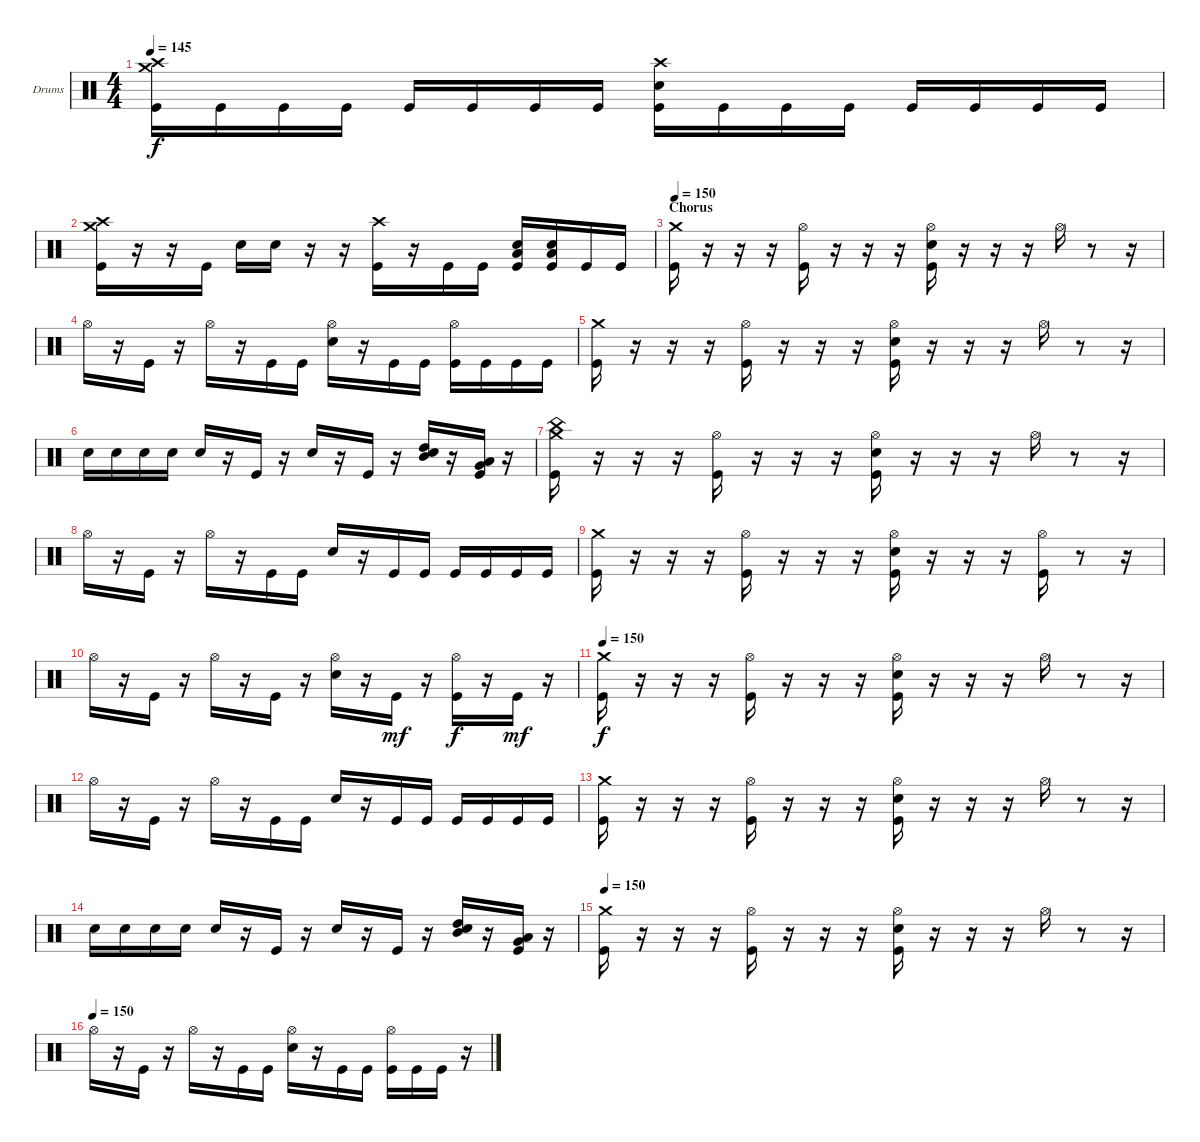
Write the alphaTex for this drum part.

\bracketExtendMode groupsimilarinstruments
\firstSystemTrackNameOrientation horizontal
\otherSystemsTrackNameOrientation horizontal
\track ("Cory La Quay" "Drums") {instrument percussion}
\staff {score}
\articulation defaults
\ts (4 4)
\tempo 145
\clef neutral
\ks c
("Crash high (hit)" "Crash medium (hit)" "Kick (hit)").16{dy f} "Kick (hit)".16 "Kick (hit)".16 "Kick (hit)".16 "Kick (hit)".16 "Kick (hit)".16 "Kick (hit)".16 "Kick (hit)".16 ("Crash high (hit)" "Snare (hit) 2" "Kick (hit)").16 "Kick (hit)".16 "Kick (hit)".16 "Kick (hit)".16 "Kick (hit)".16 "Kick (hit)".16 "Kick (hit)".16 "Kick (hit)".16 |
("Crash high (hit)" "Crash medium (hit)" "Kick (hit)").16 r.16 r.16 "Kick (hit)".16 "Snare (hit) 2".16 "Snare (hit) 2".16 r.16 r.16 ("Crash high (hit)" "Kick (hit)").16 r.16 "Kick (hit)".16 "Kick (hit)".16 ("Snare (hit) 2" "Kick (hit)" "Low Tom (hit)").16 ("Kick (hit)" "Snare (hit) 2" "Low Tom (hit)").16 "Kick (hit)".16 "Kick (hit)".16 |
\section ("" "Chorus")
\tempo 150
("Crash medium (hit)" "Kick (hit)").16 r.16 r.16 r.16 ("Hi-Hat (open)" "Kick (hit)").16 r.16 r.16 r.16 ("Hi-Hat (open)" "Snare (hit) 2" "Kick (hit)").16 r.16 r.16 r.16 "Hi-Hat (open)".16 r.8 r.16 |
"Hi-Hat (open)".16 r.16 "Kick (hit)".16 r.16 "Hi-Hat (open)".16 r.16 "Kick (hit)".16 "Kick (hit)".16 ("Hi-Hat (open)" "Snare (hit) 2").16 r.16 "Kick (hit)".16 "Kick (hit)".16 ("Hi-Hat (open)" "Kick (hit)").16 "Kick (hit)".16 "Kick (hit)".16 "Kick (hit)".16 |
("Crash medium (hit)" "Kick (hit)").16 r.16 r.16 r.16 ("Hi-Hat (open)" "Kick (hit)").16 r.16 r.16 r.16 ("Hi-Hat (open)" "Snare (hit) 2" "Kick (hit)").16 r.16 r.16 r.16 "Hi-Hat (open)".16 r.8 r.16 |
"Snare (hit) 2".16 "Snare (hit) 2".16 "Snare (hit) 2".16 "Snare (hit) 2".16 "Snare (hit) 2".16 r.16 "Kick (hit)".16 r.16 "Snare (hit) 2".16 r.16 "Kick (hit)".16 r.16 ("Snare (hit) 2" "High Tom (hit)" "Mid Tom (hit)").16 r.16 ("Kick (hit)" "Low Tom (hit)" "Very Low Tom (hit)").16 r.16 |
("Crash medium (hit)" "Kick (hit)" "China (hit)").16 r.16 r.16 r.16 ("Hi-Hat (open)" "Kick (hit)").16 r.16 r.16 r.16 ("Hi-Hat (open)" "Snare (hit) 2" "Kick (hit)").16 r.16 r.16 r.16 "Hi-Hat (open)".16 r.8 r.16 |
"Hi-Hat (open)".16 r.16 "Kick (hit)".16 r.16 "Hi-Hat (open)".16 r.16 "Kick (hit)".16 "Kick (hit)".16 "Snare (hit) 2".16 r.16 "Kick (hit)".16 "Kick (hit)".16 "Kick (hit)".16 "Kick (hit)".16 "Kick (hit)".16 "Kick (hit)".16 |
("Crash medium (hit)" "Kick (hit)").16 r.16 r.16 r.16 ("Hi-Hat (open)" "Kick (hit)").16 r.16 r.16 r.16 ("Hi-Hat (open)" "Snare (hit) 2" "Kick (hit)").16 r.16 r.16 r.16 ("Hi-Hat (open)" "Kick (hit)").16 r.8 r.16 |
"Hi-Hat (open)".16 r.16 "Kick (hit)".16 r.16 "Hi-Hat (open)".16 r.16 "Kick (hit)".16 r.16 ("Hi-Hat (open)" "Snare (hit) 2").16 r.16 "Kick (hit)".16{dy mf} r.16 ("Hi-Hat (open)" "Kick (hit)").16{dy f} r.16 "Kick (hit)".16{dy mf} r.16 |
\tempo 150
("Crash medium (hit)" "Kick (hit)").16{dy f} r.16 r.16 r.16 ("Hi-Hat (open)" "Kick (hit)").16 r.16 r.16 r.16 ("Hi-Hat (open)" "Snare (hit) 2" "Kick (hit)").16 r.16 r.16 r.16 "Hi-Hat (open)".16 r.8 r.16 |
"Hi-Hat (open)".16 r.16 "Kick (hit)".16 r.16 "Hi-Hat (open)".16 r.16 "Kick (hit)".16 "Kick (hit)".16 "Snare (hit) 2".16 r.16 "Kick (hit)".16 "Kick (hit)".16 "Kick (hit)".16 "Kick (hit)".16 "Kick (hit)".16 "Kick (hit)".16 |
("Crash medium (hit)" "Kick (hit)").16 r.16 r.16 r.16 ("Hi-Hat (open)" "Kick (hit)").16 r.16 r.16 r.16 ("Hi-Hat (open)" "Snare (hit) 2" "Kick (hit)").16 r.16 r.16 r.16 "Hi-Hat (open)".16 r.8 r.16 |
"Snare (hit) 2".16 "Snare (hit) 2".16 "Snare (hit) 2".16 "Snare (hit) 2".16 "Snare (hit) 2".16 r.16 "Kick (hit)".16 r.16 "Snare (hit) 2".16 r.16 "Kick (hit)".16 r.16 ("Snare (hit) 2" "High Tom (hit)" "Mid Tom (hit)").16 r.16 ("Kick (hit)" "Low Tom (hit)" "Very Low Tom (hit)").16 r.16 |
\tempo 150
("Crash medium (hit)" "Kick (hit)").16 r.16 r.16 r.16 ("Hi-Hat (open)" "Kick (hit)").16 r.16 r.16 r.16 ("Hi-Hat (open)" "Snare (hit) 2" "Kick (hit)").16 r.16 r.16 r.16 "Hi-Hat (open)".16 r.8 r.16 |
\tempo (150)
"Hi-Hat (open)".16 r.16 "Kick (hit)".16 r.16 "Hi-Hat (open)".16 r.16 "Kick (hit)".16 "Kick (hit)".16 ("Hi-Hat (open)" "Snare (hit) 2").16 r.16 "Kick (hit)".16 "Kick (hit)".16 ("Hi-Hat (open)" "Kick (hit)").16 "Kick (hit)".16 "Kick (hit)".16 r.16
